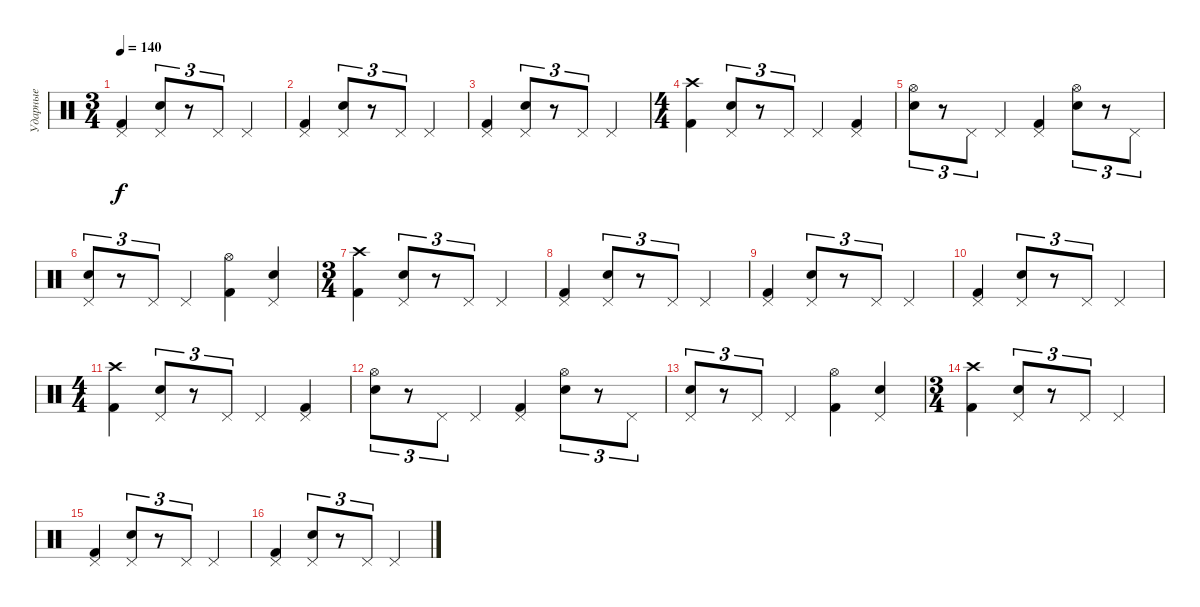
\track ("Ударные" "Ударные") {instrument percussion}
\staff {score}
\articulation defaults
\ts (3 4)
\tempo 140
\clef neutral
\ks c
("Pedal Hi-Hat (hit)" "Kick (hit) 2").4{dy f} ("Pedal Hi-Hat (hit)" "Electric Snare (hit)").8{tu (3 2)} r.8{tu (3 2)} "Pedal Hi-Hat (hit)".8{tu (3 2)} "Pedal Hi-Hat (hit)".4 |
("Pedal Hi-Hat (hit)" "Kick (hit) 2").4 ("Pedal Hi-Hat (hit)" "Electric Snare (hit)").8{tu (3 2)} r.8{tu (3 2)} "Pedal Hi-Hat (hit)".8{tu (3 2)} "Pedal Hi-Hat (hit)".4 |
("Pedal Hi-Hat (hit)" "Kick (hit) 2").4 ("Pedal Hi-Hat (hit)" "Electric Snare (hit)").8{tu (3 2)} r.8{tu (3 2)} "Pedal Hi-Hat (hit)".8{tu (3 2)} "Pedal Hi-Hat (hit)".4 |
\ts (4 4)
("Crash high (hit)" "Kick (hit) 2").4 ("Pedal Hi-Hat (hit)" "Electric Snare (hit)").8{tu (3 2)} r.8{tu (3 2)} "Pedal Hi-Hat (hit)".8{tu (3 2)} "Pedal Hi-Hat (hit)".4 ("Pedal Hi-Hat (hit)" "Kick (hit) 2").4 |
("Hi-Hat (open)" "Electric Snare (hit)").8{tu (3 2)} r.8{tu (3 2)} "Pedal Hi-Hat (hit)".8{tu (3 2)} "Pedal Hi-Hat (hit)".4 ("Pedal Hi-Hat (hit)" "Kick (hit) 2").4 ("Hi-Hat (open)" "Electric Snare (hit)").8{tu (3 2)} r.8{tu (3 2)} "Pedal Hi-Hat (hit)".8{tu (3 2)} |
("Pedal Hi-Hat (hit)" "Electric Snare (hit)").8{tu (3 2)} r.8{tu (3 2)} "Pedal Hi-Hat (hit)".8{tu (3 2)} "Pedal Hi-Hat (hit)".4 ("Hi-Hat (open)" "Kick (hit) 2").4 ("Pedal Hi-Hat (hit)" "Electric Snare (hit)").4 |
\ts (3 4)
("Crash high (hit)" "Kick (hit) 2").4 ("Pedal Hi-Hat (hit)" "Electric Snare (hit)").8{tu (3 2)} r.8{tu (3 2)} "Pedal Hi-Hat (hit)".8{tu (3 2)} "Pedal Hi-Hat (hit)".4 |
("Pedal Hi-Hat (hit)" "Kick (hit) 2").4 ("Pedal Hi-Hat (hit)" "Electric Snare (hit)").8{tu (3 2)} r.8{tu (3 2)} "Pedal Hi-Hat (hit)".8{tu (3 2)} "Pedal Hi-Hat (hit)".4 |
("Pedal Hi-Hat (hit)" "Kick (hit) 2").4 ("Pedal Hi-Hat (hit)" "Electric Snare (hit)").8{tu (3 2)} r.8{tu (3 2)} "Pedal Hi-Hat (hit)".8{tu (3 2)} "Pedal Hi-Hat (hit)".4 |
("Pedal Hi-Hat (hit)" "Kick (hit) 2").4 ("Pedal Hi-Hat (hit)" "Electric Snare (hit)").8{tu (3 2)} r.8{tu (3 2)} "Pedal Hi-Hat (hit)".8{tu (3 2)} "Pedal Hi-Hat (hit)".4 |
\ts (4 4)
("Crash high (hit)" "Kick (hit) 2").4 ("Pedal Hi-Hat (hit)" "Electric Snare (hit)").8{tu (3 2)} r.8{tu (3 2)} "Pedal Hi-Hat (hit)".8{tu (3 2)} "Pedal Hi-Hat (hit)".4 ("Pedal Hi-Hat (hit)" "Kick (hit) 2").4 |
("Hi-Hat (open)" "Electric Snare (hit)").8{tu (3 2)} r.8{tu (3 2)} "Pedal Hi-Hat (hit)".8{tu (3 2)} "Pedal Hi-Hat (hit)".4 ("Pedal Hi-Hat (hit)" "Kick (hit) 2").4 ("Hi-Hat (open)" "Electric Snare (hit)").8{tu (3 2)} r.8{tu (3 2)} "Pedal Hi-Hat (hit)".8{tu (3 2)} |
("Pedal Hi-Hat (hit)" "Electric Snare (hit)").8{tu (3 2)} r.8{tu (3 2)} "Pedal Hi-Hat (hit)".8{tu (3 2)} "Pedal Hi-Hat (hit)".4 ("Hi-Hat (open)" "Kick (hit) 2").4 ("Pedal Hi-Hat (hit)" "Electric Snare (hit)").4 |
\ts (3 4)
("Crash high (hit)" "Kick (hit) 2").4 ("Pedal Hi-Hat (hit)" "Electric Snare (hit)").8{tu (3 2)} r.8{tu (3 2)} "Pedal Hi-Hat (hit)".8{tu (3 2)} "Pedal Hi-Hat (hit)".4 |
("Pedal Hi-Hat (hit)" "Kick (hit) 2").4 ("Pedal Hi-Hat (hit)" "Electric Snare (hit)").8{tu (3 2)} r.8{tu (3 2)} "Pedal Hi-Hat (hit)".8{tu (3 2)} "Pedal Hi-Hat (hit)".4 |
("Pedal Hi-Hat (hit)" "Kick (hit) 2").4 ("Pedal Hi-Hat (hit)" "Electric Snare (hit)").8{tu (3 2)} r.8{tu (3 2)} "Pedal Hi-Hat (hit)".8{tu (3 2)} "Pedal Hi-Hat (hit)".4
